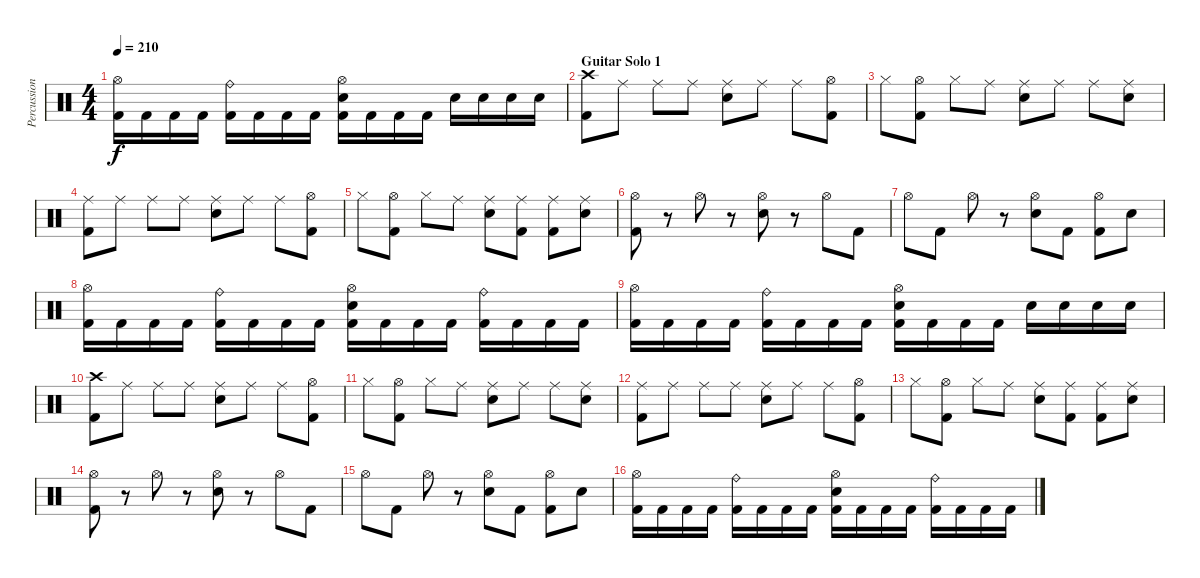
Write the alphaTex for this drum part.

\track ("Percussion" "Percussion") {instrument percussion}
\staff {score}
\articulation defaults
\ts (4 4)
\tempo 210
\clef neutral
\ks c
("Hi-Hat (open)" "Kick (hit) 2").16{dy f} "Kick (hit) 2".16 "Kick (hit) 2".16 "Kick (hit) 2".16 ("Ride (bell)" "Kick (hit) 2").16 "Kick (hit) 2".16 "Kick (hit) 2".16 "Kick (hit) 2".16 ("Hi-Hat (open)" "Electric Snare (hit)" "Kick (hit) 2").16 "Kick (hit) 2".16 "Kick (hit) 2".16 "Kick (hit) 2".16 "Electric Snare (hit)".16 "Electric Snare (hit)".16 "Electric Snare (hit)".16 "Electric Snare (hit)".16 |
\section ("" "Guitar Solo 1")
("Crash high (hit)" "Kick (hit) 2").8 "Ride (middle)".8 "Ride (middle)".8 "Ride (middle)".8 ("Ride (middle)" "Electric Snare (hit)").8 "Ride (middle)".8 "Ride (middle)".8 ("Hi-Hat (open)" "Kick (hit) 2").8 |
"Hi-Hat (closed)".8 ("Hi-Hat (open)" "Kick (hit) 2").8 "Hi-Hat (closed)".8 "Ride (middle)".8 ("Ride (middle)" "Electric Snare (hit)").8 "Ride (middle)".8 "Ride (middle)".8 ("Ride (middle)" "Electric Snare (hit)").8 |
("Ride (middle)" "Kick (hit) 2").8 "Ride (middle)".8 "Ride (middle)".8 "Ride (middle)".8 ("Ride (middle)" "Electric Snare (hit)").8 "Ride (middle)".8 "Ride (middle)".8 ("Hi-Hat (open)" "Kick (hit) 2").8 |
"Hi-Hat (closed)".8 ("Hi-Hat (open)" "Kick (hit) 2").8 "Hi-Hat (closed)".8 "Ride (middle)".8 ("Ride (middle)" "Electric Snare (hit)").8 ("Ride (middle)" "Kick (hit) 2").8 ("Ride (middle)" "Kick (hit) 2").8 ("Ride (middle)" "Electric Snare (hit)").8 |
("Hi-Hat (open)" "Kick (hit) 2").8 r.8 "Hi-Hat (open)".8 r.8 ("Hi-Hat (open)" "Electric Snare (hit)").8 r.8 "Hi-Hat (open)".8 "Kick (hit) 2".8 |
"Hi-Hat (open)".8 "Kick (hit) 2".8 "Hi-Hat (open)".8 r.8 ("Hi-Hat (open)" "Electric Snare (hit)").8 "Kick (hit) 2".8 ("Hi-Hat (open)" "Kick (hit) 2").8 "Electric Snare (hit)".8 |
("Hi-Hat (open)" "Kick (hit) 2").16 "Kick (hit) 2".16 "Kick (hit) 2".16 "Kick (hit) 2".16 ("Ride (bell)" "Kick (hit) 2").16 "Kick (hit) 2".16 "Kick (hit) 2".16 "Kick (hit) 2".16 ("Hi-Hat (open)" "Electric Snare (hit)" "Kick (hit) 2").16 "Kick (hit) 2".16 "Kick (hit) 2".16 "Kick (hit) 2".16 ("Ride (bell)" "Kick (hit) 2").16 "Kick (hit) 2".16 "Kick (hit) 2".16 "Kick (hit) 2".16 |
("Hi-Hat (open)" "Kick (hit) 2").16 "Kick (hit) 2".16 "Kick (hit) 2".16 "Kick (hit) 2".16 ("Ride (bell)" "Kick (hit) 2").16 "Kick (hit) 2".16 "Kick (hit) 2".16 "Kick (hit) 2".16 ("Hi-Hat (open)" "Electric Snare (hit)" "Kick (hit) 2").16 "Kick (hit) 2".16 "Kick (hit) 2".16 "Kick (hit) 2".16 "Electric Snare (hit)".16 "Electric Snare (hit)".16 "Electric Snare (hit)".16 "Electric Snare (hit)".16 |
("Crash high (hit)" "Kick (hit) 2").8 "Ride (middle)".8 "Ride (middle)".8 "Ride (middle)".8 ("Ride (middle)" "Electric Snare (hit)").8 "Ride (middle)".8 "Ride (middle)".8 ("Hi-Hat (open)" "Kick (hit) 2").8 |
"Hi-Hat (closed)".8 ("Hi-Hat (open)" "Kick (hit) 2").8 "Hi-Hat (closed)".8 "Ride (middle)".8 ("Ride (middle)" "Electric Snare (hit)").8 "Ride (middle)".8 "Ride (middle)".8 ("Ride (middle)" "Electric Snare (hit)").8 |
("Ride (middle)" "Kick (hit) 2").8 "Ride (middle)".8 "Ride (middle)".8 "Ride (middle)".8 ("Ride (middle)" "Electric Snare (hit)").8 "Ride (middle)".8 "Ride (middle)".8 ("Hi-Hat (open)" "Kick (hit) 2").8 |
"Hi-Hat (closed)".8 ("Hi-Hat (open)" "Kick (hit) 2").8 "Hi-Hat (closed)".8 "Ride (middle)".8 ("Ride (middle)" "Electric Snare (hit)").8 ("Ride (middle)" "Kick (hit) 2").8 ("Ride (middle)" "Kick (hit) 2").8 ("Ride (middle)" "Electric Snare (hit)").8 |
("Hi-Hat (open)" "Kick (hit) 2").8 r.8 "Hi-Hat (open)".8 r.8 ("Hi-Hat (open)" "Electric Snare (hit)").8 r.8 "Hi-Hat (open)".8 "Kick (hit) 2".8 |
"Hi-Hat (open)".8 "Kick (hit) 2".8 "Hi-Hat (open)".8 r.8 ("Hi-Hat (open)" "Electric Snare (hit)").8 "Kick (hit) 2".8 ("Hi-Hat (open)" "Kick (hit) 2").8 "Electric Snare (hit)".8 |
("Hi-Hat (open)" "Kick (hit) 2").16 "Kick (hit) 2".16 "Kick (hit) 2".16 "Kick (hit) 2".16 ("Ride (bell)" "Kick (hit) 2").16 "Kick (hit) 2".16 "Kick (hit) 2".16 "Kick (hit) 2".16 ("Hi-Hat (open)" "Electric Snare (hit)" "Kick (hit) 2").16 "Kick (hit) 2".16 "Kick (hit) 2".16 "Kick (hit) 2".16 ("Ride (bell)" "Kick (hit) 2").16 "Kick (hit) 2".16 "Kick (hit) 2".16 "Kick (hit) 2".16
